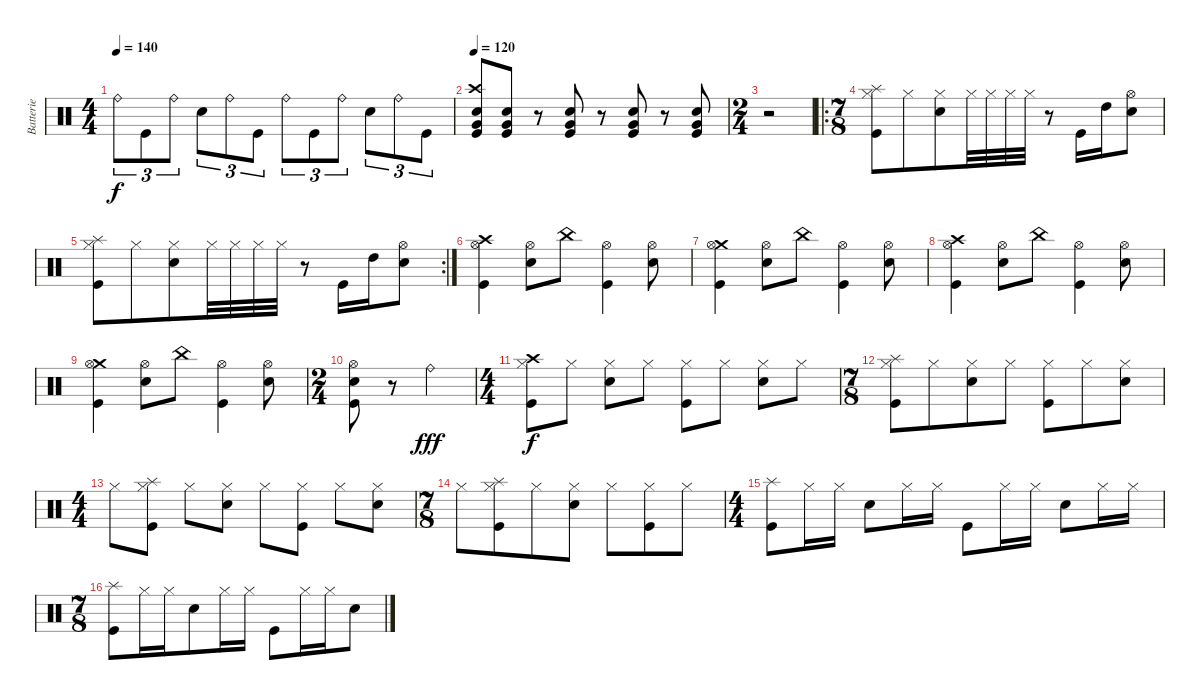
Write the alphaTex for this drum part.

\track ("Batterie" "Batterie") {instrument percussion}
\staff {score}
\articulation defaults
\ts (4 4)
\tempo 140
\clef neutral
\ks c "Ride (bell)".8{tu (3 2) dy f} "Kick (hit)".8{tu (3 2)} "Ride (bell)".8{tu (3 2)} "Snare (hit) 2".8{tu (3 2)} "Ride (bell)".8{tu (3 2)} "Kick (hit)".8{tu (3 2)} "Ride (bell)".8{tu (3 2)} "Kick (hit)".8{tu (3 2)} "Ride (bell)".8{tu (3 2)} "Snare (hit) 2".8{tu (3 2)} "Ride (bell)".8{tu (3 2)} "Kick (hit)".8{tu (3 2)}
|
\tempo 120
("Crash high (hit)" "Snare (hit) 2" "Very Low Tom (hit)" "Kick (hit)").8 ("Snare (hit) 2" "Very Low Tom (hit)" "Kick (hit)").8 r.8 ("Snare (hit) 2" "Very Low Tom (hit)" "Kick (hit)").8 r.8 ("Snare (hit) 2" "Very Low Tom (hit)" "Kick (hit)").8 r.8 ("Snare (hit) 2" "Very Low Tom (hit)" "Kick (hit)").8 |
\ts (2 4)
r.2 |
\ro
\ts (7 8)
("Splash (hit)" "Hi-Hat (closed)" "Kick (hit)").8 "Hi-Hat (closed)".8 ("Hi-Hat (closed)" "Snare (hit) 2").8 "Hi-Hat (closed)".32 "Hi-Hat (closed)".32 "Hi-Hat (closed)".32 "Hi-Hat (closed)".32 r.8 "Kick (hit)".16 "High Tom (hit)".16 ("Hi-Hat (open)" "Snare (hit) 2").8 |
\rc 2
("Splash (hit)" "Hi-Hat (closed)" "Kick (hit)").8 "Hi-Hat (closed)".8 ("Hi-Hat (closed)" "Snare (hit) 2").8 "Hi-Hat (closed)".32 "Hi-Hat (closed)".32 "Hi-Hat (closed)".32 "Hi-Hat (closed)".32 r.8 "Kick (hit)".16 "High Tom (hit)".16 ("Hi-Hat (open)" "Snare (hit) 2").8 |
("Crash high (hit)" "Hi-Hat (open)" "Kick (hit)").4 ("Hi-Hat (open)" "Snare (hit) 2").8 "China (hit)".8 ("Hi-Hat (open)" "Kick (hit)").4 ("Hi-Hat (open)" "Snare (hit) 2").8 |
("Crash medium (hit)" "Hi-Hat (open)" "Kick (hit)").4 ("Hi-Hat (open)" "Snare (hit) 2").8 "China (hit)".8 ("Hi-Hat (open)" "Kick (hit)").4 ("Hi-Hat (open)" "Snare (hit) 2").8 |
("Crash high (hit)" "Hi-Hat (open)" "Kick (hit)").4 ("Hi-Hat (open)" "Snare (hit) 2").8 "China (hit)".8 ("Hi-Hat (open)" "Kick (hit)").4 ("Hi-Hat (open)" "Snare (hit) 2").8 |
("Crash medium (hit)" "Hi-Hat (open)" "Kick (hit)").4 ("Hi-Hat (open)" "Snare (hit) 2").8 "China (hit)".8 ("Hi-Hat (open)" "Kick (hit)").4 ("Hi-Hat (open)" "Snare (hit) 2").8 |
\ts (2 4)
("Snare (hit) 2" "Hi-Hat (open)" "Kick (hit)").8 r.8 "Ride (bell)".4{dy fff} |
\ts (4 4)
("Crash high (hit)" "Hi-Hat (closed)" "Kick (hit)").8{dy f} "Hi-Hat (closed)".8 ("Hi-Hat (closed)" "Snare (hit) 2").8 "Hi-Hat (closed)".8 ("Hi-Hat (closed)" "Kick (hit)").8 "Hi-Hat (closed)".8 ("Hi-Hat (closed)" "Snare (hit) 2").8 "Hi-Hat (closed)".8 |
\ts (7 8)
("Splash (hit)" "Hi-Hat (closed)" "Kick (hit)").8 "Hi-Hat (closed)".8 ("Hi-Hat (closed)" "Snare (hit) 2").8 "Hi-Hat (closed)".8 ("Hi-Hat (closed)" "Kick (hit)").8 "Hi-Hat (closed)".8 ("Hi-Hat (closed)" "Snare (hit) 2").8 |
\ts (4 4)
"Hi-Hat (closed)".8 ("Splash (hit)" "Hi-Hat (closed)" "Kick (hit)").8 "Hi-Hat (closed)".8 ("Hi-Hat (closed)" "Snare (hit) 2").8 "Hi-Hat (closed)".8 ("Hi-Hat (closed)" "Kick (hit)").8 "Hi-Hat (closed)".8 ("Hi-Hat (closed)" "Snare (hit) 2").8 |
\ts (7 8)
"Hi-Hat (closed)".8 ("Splash (hit)" "Hi-Hat (closed)" "Kick (hit)").8 "Hi-Hat (closed)".8 ("Hi-Hat (closed)" "Snare (hit) 2").8 "Hi-Hat (closed)".8 ("Hi-Hat (closed)" "Kick (hit)").8 "Hi-Hat (closed)".8 |
\ts (4 4)
("Splash (hit)" "Kick (hit)").8 "Hi-Hat (closed)".16 "Hi-Hat (closed)".16 "Snare (hit) 2".8 "Hi-Hat (closed)".16 "Hi-Hat (closed)".16 "Kick (hit)".8 "Hi-Hat (closed)".16 "Hi-Hat (closed)".16 "Snare (hit) 2".8 "Hi-Hat (closed)".16 "Hi-Hat (closed)".16 |
\ts (7 8)
("Splash (hit)" "Kick (hit)").8 "Hi-Hat (closed)".16 "Hi-Hat (closed)".16 "Snare (hit) 2".8 "Hi-Hat (closed)".16 "Hi-Hat (closed)".16 "Kick (hit)".8 "Hi-Hat (closed)".16 "Hi-Hat (closed)".16 "Snare (hit) 2".8
